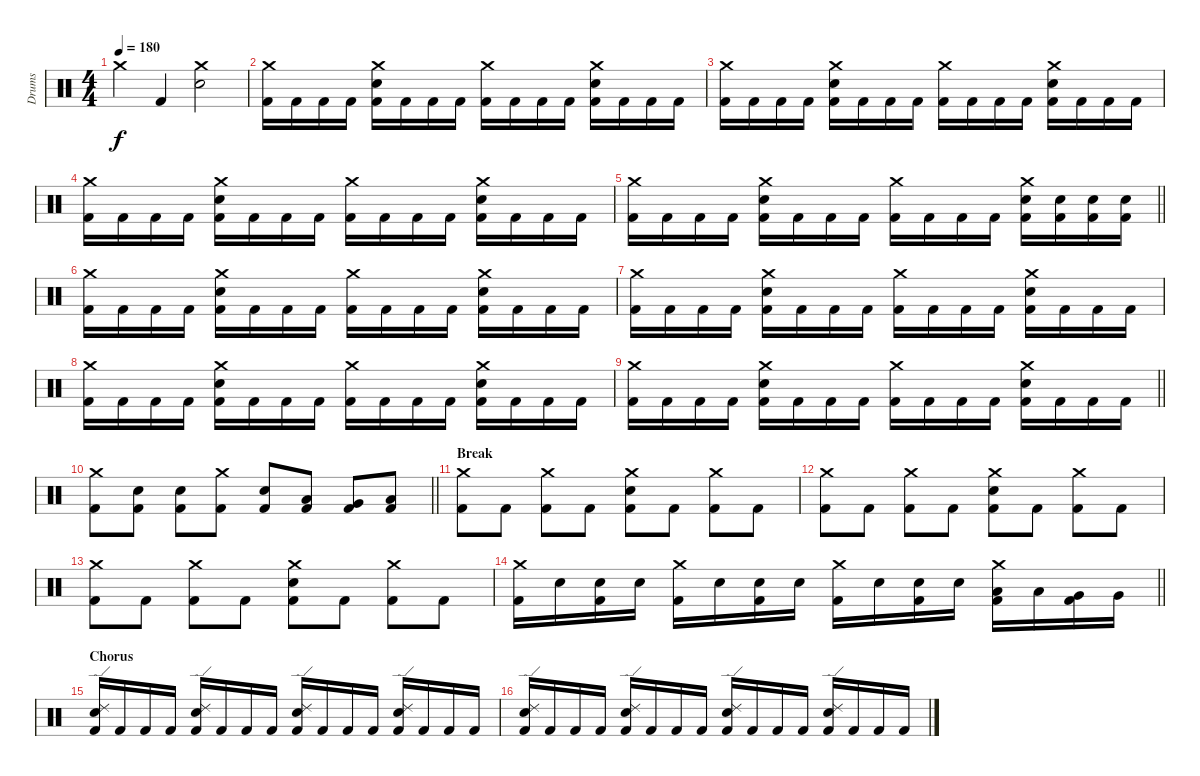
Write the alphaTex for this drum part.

\track ("Drums" "Drums") {instrument percussion}
\staff {score}
\articulation defaults
\ts (4 4)
\tempo 180
\clef neutral
\ks c "Crash medium (hit)".4{dy f} "Kick (hit) 2".4
("Crash medium (hit)" "Snare (hit) 2").2 |
("Crash medium (hit)" "Kick (hit) 2").16 "Kick (hit) 2".16 "Kick (hit) 2".16 "Kick (hit) 2".16 ("Crash medium (hit)" "Snare (hit) 2" "Kick (hit) 2").16 "Kick (hit) 2".16 "Kick (hit) 2".16 "Kick (hit) 2".16 ("Crash medium (hit)" "Kick (hit) 2").16 "Kick (hit) 2".16 "Kick (hit) 2".16 "Kick (hit) 2".16 ("Crash medium (hit)" "Snare (hit) 2" "Kick (hit) 2").16 "Kick (hit) 2".16 "Kick (hit) 2".16 "Kick (hit) 2".16 |
("Crash medium (hit)" "Kick (hit) 2").16 "Kick (hit) 2".16 "Kick (hit) 2".16 "Kick (hit) 2".16 ("Crash medium (hit)" "Snare (hit) 2" "Kick (hit) 2").16 "Kick (hit) 2".16 "Kick (hit) 2".16 "Kick (hit) 2".16 ("Crash medium (hit)" "Kick (hit) 2").16 "Kick (hit) 2".16 "Kick (hit) 2".16 "Kick (hit) 2".16 ("Crash medium (hit)" "Snare (hit) 2" "Kick (hit) 2").16 "Kick (hit) 2".16 "Kick (hit) 2".16 "Kick (hit) 2".16 |
("Crash medium (hit)" "Kick (hit) 2").16 "Kick (hit) 2".16 "Kick (hit) 2".16 "Kick (hit) 2".16 ("Crash medium (hit)" "Snare (hit) 2" "Kick (hit) 2").16 "Kick (hit) 2".16 "Kick (hit) 2".16 "Kick (hit) 2".16 ("Crash medium (hit)" "Kick (hit) 2").16 "Kick (hit) 2".16 "Kick (hit) 2".16 "Kick (hit) 2".16 ("Crash medium (hit)" "Snare (hit) 2" "Kick (hit) 2").16 "Kick (hit) 2".16 "Kick (hit) 2".16 "Kick (hit) 2".16 |
\barLineRight lightlight
("Crash medium (hit)" "Kick (hit) 2").16 "Kick (hit) 2".16 "Kick (hit) 2".16 "Kick (hit) 2".16 ("Crash medium (hit)" "Snare (hit) 2" "Kick (hit) 2").16 "Kick (hit) 2".16 "Kick (hit) 2".16 "Kick (hit) 2".16 ("Crash medium (hit)" "Kick (hit) 2").16 "Kick (hit) 2".16 "Kick (hit) 2".16 "Kick (hit) 2".16 ("Crash medium (hit)" "Snare (hit) 2" "Kick (hit) 2").16 ("Snare (hit) 2" "Kick (hit) 2").16 ("Snare (hit) 2" "Kick (hit) 2").16 ("Snare (hit) 2" "Kick (hit) 2").16 |
("Crash medium (hit)" "Kick (hit) 2").16 "Kick (hit) 2".16 "Kick (hit) 2".16 "Kick (hit) 2".16 ("Crash medium (hit)" "Snare (hit) 2" "Kick (hit) 2").16 "Kick (hit) 2".16 "Kick (hit) 2".16 "Kick (hit) 2".16 ("Crash medium (hit)" "Kick (hit) 2").16 "Kick (hit) 2".16 "Kick (hit) 2".16 "Kick (hit) 2".16 ("Crash medium (hit)" "Snare (hit) 2" "Kick (hit) 2").16 "Kick (hit) 2".16 "Kick (hit) 2".16 "Kick (hit) 2".16 |
("Crash medium (hit)" "Kick (hit) 2").16 "Kick (hit) 2".16 "Kick (hit) 2".16 "Kick (hit) 2".16 ("Crash medium (hit)" "Snare (hit) 2" "Kick (hit) 2").16 "Kick (hit) 2".16 "Kick (hit) 2".16 "Kick (hit) 2".16 ("Crash medium (hit)" "Kick (hit) 2").16 "Kick (hit) 2".16 "Kick (hit) 2".16 "Kick (hit) 2".16 ("Crash medium (hit)" "Snare (hit) 2" "Kick (hit) 2").16 "Kick (hit) 2".16 "Kick (hit) 2".16 "Kick (hit) 2".16 |
("Crash medium (hit)" "Kick (hit) 2").16 "Kick (hit) 2".16 "Kick (hit) 2".16 "Kick (hit) 2".16 ("Crash medium (hit)" "Snare (hit) 2" "Kick (hit) 2").16 "Kick (hit) 2".16 "Kick (hit) 2".16 "Kick (hit) 2".16 ("Crash medium (hit)" "Kick (hit) 2").16 "Kick (hit) 2".16 "Kick (hit) 2".16 "Kick (hit) 2".16 ("Crash medium (hit)" "Snare (hit) 2" "Kick (hit) 2").16 "Kick (hit) 2".16 "Kick (hit) 2".16 "Kick (hit) 2".16 |
\barLineRight lightlight
("Crash medium (hit)" "Kick (hit) 2").16 "Kick (hit) 2".16 "Kick (hit) 2".16 "Kick (hit) 2".16 ("Crash medium (hit)" "Snare (hit) 2" "Kick (hit) 2").16 "Kick (hit) 2".16 "Kick (hit) 2".16 "Kick (hit) 2".16 ("Crash medium (hit)" "Kick (hit) 2").16 "Kick (hit) 2".16 "Kick (hit) 2".16 "Kick (hit) 2".16 ("Crash medium (hit)" "Snare (hit) 2" "Kick (hit) 2").16 "Kick (hit) 2".16 "Kick (hit) 2".16 "Kick (hit) 2".16 |
\barLineRight lightlight
("Crash medium (hit)" "Kick (hit) 2").8 ("Snare (hit) 2" "Kick (hit) 2").8 ("Snare (hit) 2" "Kick (hit) 2").8 ("Crash medium (hit)" "Kick (hit) 2").8 ("Snare (hit) 2" "Kick (hit) 2").8 ("Low Tom (hit)" "Kick (hit) 2").8 ("Very Low Tom (hit)" "Kick (hit) 2").8 ("Low Floor Tom (hit)" "Kick (hit) 2").8 |
\section ("" "Break")
("Crash medium (hit)" "Kick (hit) 2").8 "Kick (hit) 2".8 ("Crash medium (hit)" "Kick (hit) 2").8 "Kick (hit) 2".8 ("Crash medium (hit)" "Snare (hit) 2" "Kick (hit) 2").8 "Kick (hit) 2".8 ("Crash medium (hit)" "Kick (hit) 2").8 "Kick (hit) 2".8 |
("Crash medium (hit)" "Kick (hit) 2").8 "Kick (hit) 2".8 ("Crash medium (hit)" "Kick (hit) 2").8 "Kick (hit) 2".8 ("Crash medium (hit)" "Snare (hit) 2" "Kick (hit) 2").8 "Kick (hit) 2".8 ("Crash medium (hit)" "Kick (hit) 2").8 "Kick (hit) 2".8 |
("Crash medium (hit)" "Kick (hit) 2").8 "Kick (hit) 2".8 ("Crash medium (hit)" "Kick (hit) 2").8 "Kick (hit) 2".8 ("Crash medium (hit)" "Snare (hit) 2" "Kick (hit) 2").8 "Kick (hit) 2".8 ("Crash medium (hit)" "Kick (hit) 2").8 "Kick (hit) 2".8 |
\barLineRight lightlight
("Crash medium (hit)" "Kick (hit) 2").16 "Snare (hit) 2".16 ("Snare (hit) 2" "Kick (hit) 2").16 "Snare (hit) 2".16 ("Crash medium (hit)" "Kick (hit) 2").16 "Snare (hit) 2".16 ("Snare (hit) 2" "Kick (hit) 2").16 "Snare (hit) 2".16 ("Crash medium (hit)" "Kick (hit) 2").16 "Snare (hit) 2".16 ("Snare (hit) 2" "Kick (hit) 2").16 "Snare (hit) 2".16 ("Crash medium (hit)" "Low Tom (hit)" "Kick (hit) 2").16 "Low Tom (hit)".16 ("Very Low Tom (hit)" "Kick (hit) 2").16 "Very Low Tom (hit)".16 |
\section ("" "Chorus")
("Ride (edge) 2" "Snare (hit) 2" "Kick (hit) 2").16 "Kick (hit) 2".16 "Kick (hit) 2".16 "Kick (hit) 2".16 ("Ride (edge) 2" "Snare (hit) 2" "Kick (hit) 2").16 "Kick (hit) 2".16 "Kick (hit) 2".16 "Kick (hit) 2".16 ("Ride (edge) 2" "Snare (hit) 2" "Kick (hit) 2").16 "Kick (hit) 2".16 "Kick (hit) 2".16 "Kick (hit) 2".16 ("Ride (edge) 2" "Snare (hit) 2" "Kick (hit) 2").16 "Kick (hit) 2".16 "Kick (hit) 2".16 "Kick (hit) 2".16 |
("Ride (edge) 2" "Snare (hit) 2" "Kick (hit) 2").16 "Kick (hit) 2".16 "Kick (hit) 2".16 "Kick (hit) 2".16 ("Ride (edge) 2" "Snare (hit) 2" "Kick (hit) 2").16 "Kick (hit) 2".16 "Kick (hit) 2".16 "Kick (hit) 2".16 ("Ride (edge) 2" "Snare (hit) 2" "Kick (hit) 2").16 "Kick (hit) 2".16 "Kick (hit) 2".16 "Kick (hit) 2".16 ("Ride (edge) 2" "Snare (hit) 2" "Kick (hit) 2").16 "Kick (hit) 2".16 "Kick (hit) 2".16 "Kick (hit) 2".16
